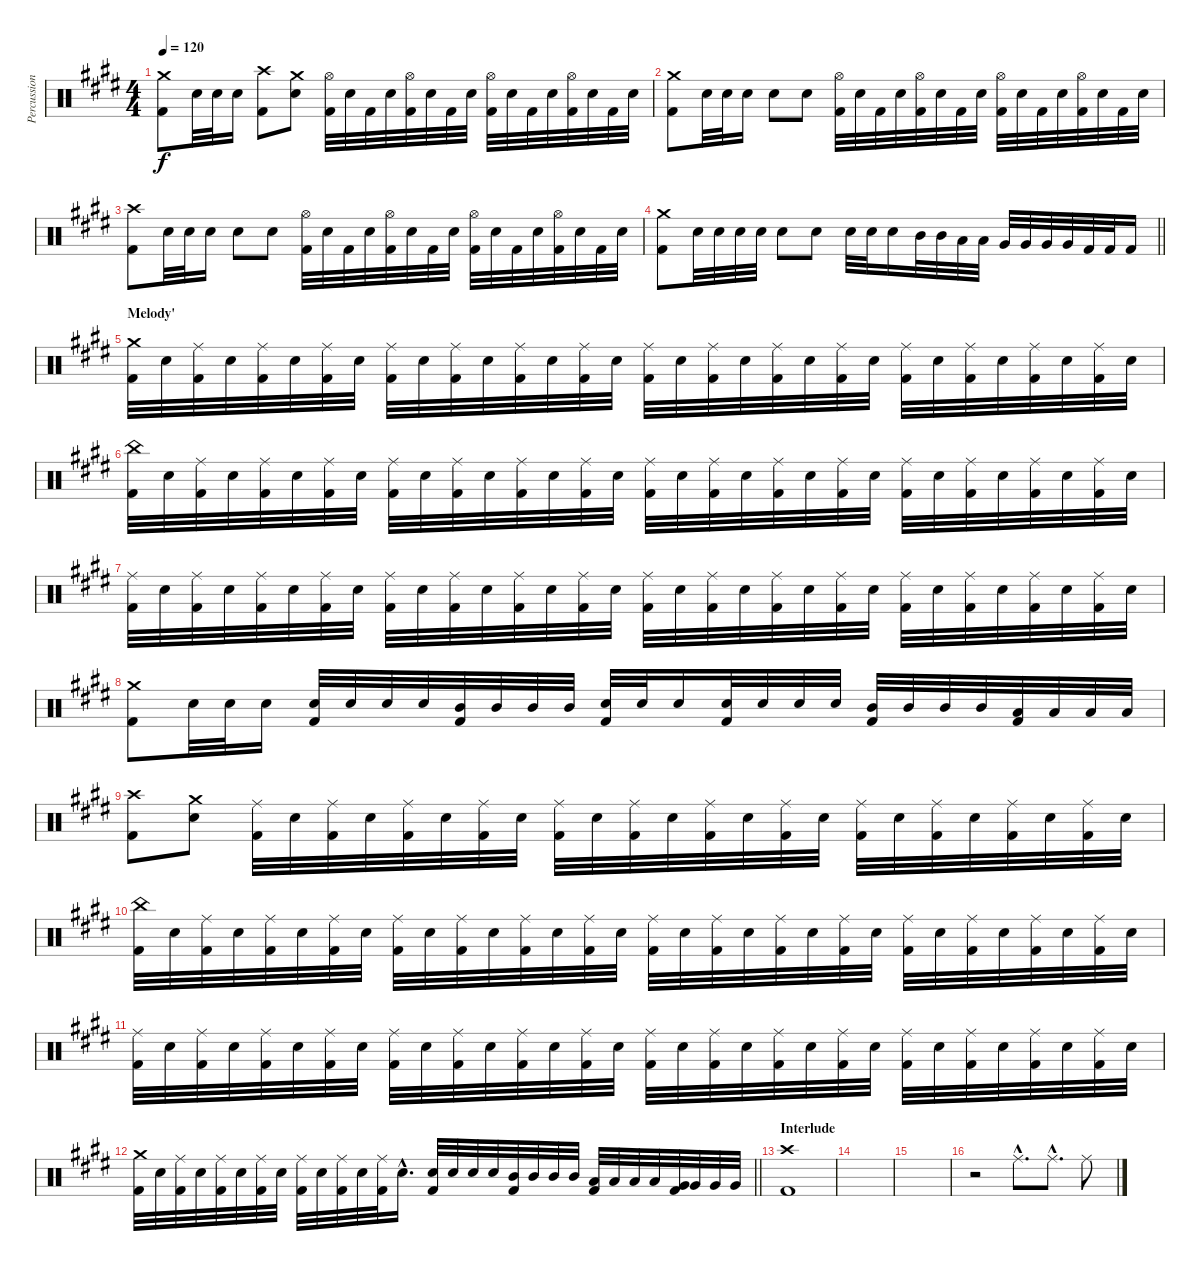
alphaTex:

\track ("Percussion" "Percussion") {instrument percussion}
\staff {score}
\articulation defaults
\ts (4 4)
\tempo 120
\clef neutral
\ks c#minor
("Crash medium (hit)" "Kick (hit) 2").8{dy f} "Snare (hit) 2".32 "Snare (hit) 2".32 "Snare (hit) 2".16 ("Crash high (hit)" "Kick (hit) 2").8 ("Crash medium (hit)" "Snare (hit) 2").8 ("Hi-Hat (open)" "Kick (hit) 2").32 "Snare (hit) 2".32 "Kick (hit) 2".32 "Snare (hit) 2".32 ("Hi-Hat (open)" "Kick (hit) 2").32 "Snare (hit) 2".32 "Kick (hit) 2".32 "Snare (hit) 2".32 ("Hi-Hat (open)" "Kick (hit) 2").32 "Snare (hit) 2".32 "Kick (hit) 2".32 "Snare (hit) 2".32 ("Hi-Hat (open)" "Kick (hit) 2").32 "Snare (hit) 2".32 "Kick (hit) 2".32 "Snare (hit) 2".32 |
("Crash medium (hit)" "Kick (hit) 2").8 "Snare (hit) 2".32 "Snare (hit) 2".32 "Snare (hit) 2".16 "Snare (hit) 2".8 "Snare (hit) 2".8 ("Hi-Hat (open)" "Kick (hit) 2").32 "Snare (hit) 2".32 "Kick (hit) 2".32 "Snare (hit) 2".32 ("Hi-Hat (open)" "Kick (hit) 2").32 "Snare (hit) 2".32 "Kick (hit) 2".32 "Snare (hit) 2".32 ("Hi-Hat (open)" "Kick (hit) 2").32 "Snare (hit) 2".32 "Kick (hit) 2".32 "Snare (hit) 2".32 ("Hi-Hat (open)" "Kick (hit) 2").32 "Snare (hit) 2".32 "Kick (hit) 2".32 "Snare (hit) 2".32 |
("Crash high (hit)" "Kick (hit) 2").8 "Snare (hit) 2".32 "Snare (hit) 2".32 "Snare (hit) 2".16 "Snare (hit) 2".8 "Snare (hit) 2".8 ("Hi-Hat (open)" "Kick (hit) 2").32 "Snare (hit) 2".32 "Kick (hit) 2".32 "Snare (hit) 2".32 ("Hi-Hat (open)" "Kick (hit) 2").32 "Snare (hit) 2".32 "Kick (hit) 2".32 "Snare (hit) 2".32 ("Hi-Hat (open)" "Kick (hit) 2").32 "Snare (hit) 2".32 "Kick (hit) 2".32 "Snare (hit) 2".32 ("Hi-Hat (open)" "Kick (hit) 2").32 "Snare (hit) 2".32 "Kick (hit) 2".32 "Snare (hit) 2".32 |
\barLineRight lightlight
("Crash medium (hit)" "Kick (hit) 2").8 "Snare (hit) 2".32 "Snare (hit) 2".32 "Snare (hit) 2".32 "Snare (hit) 2".32 "Snare (hit) 2".8 "Snare (hit) 2".8 "Snare (hit) 2".32 "Snare (hit) 2".32 "Snare (hit) 2".16 "Mid Tom (hit)".32 "Mid Tom (hit)".32 "Low Tom (hit)".32 "Low Tom (hit)".32 "Very Low Tom (hit)".32 "Very Low Tom (hit)".32 "Very Low Tom (hit)".32 "Very Low Tom (hit)".32 "Kick (hit) 2".32 "Kick (hit) 2".32 "Kick (hit) 2".16 |
\section ("" "Melody'")
("Crash medium (hit)" "Kick (hit) 2").32 "Snare (hit) 2".32 ("Ride (middle)" "Kick (hit) 2").32 "Snare (hit) 2".32 ("Ride (middle)" "Kick (hit) 2").32 "Snare (hit) 2".32 ("Ride (middle)" "Kick (hit) 2").32 "Snare (hit) 2".32 ("Ride (middle)" "Kick (hit) 2").32 "Snare (hit) 2".32 ("Ride (middle)" "Kick (hit) 2").32 "Snare (hit) 2".32 ("Ride (middle)" "Kick (hit) 2").32 "Snare (hit) 2".32 ("Ride (middle)" "Kick (hit) 2").32 "Snare (hit) 2".32 ("Ride (middle)" "Kick (hit) 2").32 "Snare (hit) 2".32 ("Ride (middle)" "Kick (hit) 2").32 "Snare (hit) 2".32 ("Ride (middle)" "Kick (hit) 2").32 "Snare (hit) 2".32 ("Ride (middle)" "Kick (hit) 2").32 "Snare (hit) 2".32 ("Ride (middle)" "Kick (hit) 2").32 "Snare (hit) 2".32 ("Ride (middle)" "Kick (hit) 2").32 "Snare (hit) 2".32 ("Ride (middle)" "Kick (hit) 2").32 "Snare (hit) 2".32 ("Ride (middle)" "Kick (hit) 2").32 "Snare (hit) 2".32 |
("China (hit)" "Kick (hit) 2").32 "Snare (hit) 2".32 ("Ride (middle)" "Kick (hit) 2").32 "Snare (hit) 2".32 ("Ride (middle)" "Kick (hit) 2").32 "Snare (hit) 2".32 ("Ride (middle)" "Kick (hit) 2").32 "Snare (hit) 2".32 ("Ride (middle)" "Kick (hit) 2").32 "Snare (hit) 2".32 ("Ride (middle)" "Kick (hit) 2").32 "Snare (hit) 2".32 ("Ride (middle)" "Kick (hit) 2").32 "Snare (hit) 2".32 ("Ride (middle)" "Kick (hit) 2").32 "Snare (hit) 2".32 ("Ride (middle)" "Kick (hit) 2").32 "Snare (hit) 2".32 ("Ride (middle)" "Kick (hit) 2").32 "Snare (hit) 2".32 ("Ride (middle)" "Kick (hit) 2").32 "Snare (hit) 2".32 ("Ride (middle)" "Kick (hit) 2").32 "Snare (hit) 2".32 ("Ride (middle)" "Kick (hit) 2").32 "Snare (hit) 2".32 ("Ride (middle)" "Kick (hit) 2").32 "Snare (hit) 2".32 ("Ride (middle)" "Kick (hit) 2").32 "Snare (hit) 2".32 ("Ride (middle)" "Kick (hit) 2").32 "Snare (hit) 2".32 |
("Ride (middle)" "Kick (hit) 2").32 "Snare (hit) 2".32 ("Ride (middle)" "Kick (hit) 2").32 "Snare (hit) 2".32 ("Ride (middle)" "Kick (hit) 2").32 "Snare (hit) 2".32 ("Ride (middle)" "Kick (hit) 2").32 "Snare (hit) 2".32 ("Ride (middle)" "Kick (hit) 2").32 "Snare (hit) 2".32 ("Ride (middle)" "Kick (hit) 2").32 "Snare (hit) 2".32 ("Ride (middle)" "Kick (hit) 2").32 "Snare (hit) 2".32 ("Ride (middle)" "Kick (hit) 2").32 "Snare (hit) 2".32 ("Ride (middle)" "Kick (hit) 2").32 "Snare (hit) 2".32 ("Ride (middle)" "Kick (hit) 2").32 "Snare (hit) 2".32 ("Ride (middle)" "Kick (hit) 2").32 "Snare (hit) 2".32 ("Ride (middle)" "Kick (hit) 2").32 "Snare (hit) 2".32 ("Ride (middle)" "Kick (hit) 2").32 "Snare (hit) 2".32 ("Ride (middle)" "Kick (hit) 2").32 "Snare (hit) 2".32 ("Ride (middle)" "Kick (hit) 2").32 "Snare (hit) 2".32 ("Ride (middle)" "Kick (hit) 2").32 "Snare (hit) 2".32 |
("Crash medium (hit)" "Kick (hit) 2").8 "Snare (hit) 2".32 "Snare (hit) 2".32 "Snare (hit) 2".16 ("Snare (hit) 2" "Kick (hit) 2").32 "Snare (hit) 2".32 "Snare (hit) 2".32 "Snare (hit) 2".32 ("Mid Tom (hit)" "Kick (hit) 2").32 "Mid Tom (hit)".32 "Mid Tom (hit)".32 "Mid Tom (hit)".32 ("Snare (hit) 2" "Kick (hit) 2").32 "Snare (hit) 2".32 "Snare (hit) 2".16 ("Snare (hit) 2" "Kick (hit) 2").32 "Snare (hit) 2".32 "Snare (hit) 2".32 "Snare (hit) 2".32 ("Mid Tom (hit)" "Kick (hit) 2").32 "Mid Tom (hit)".32 "Mid Tom (hit)".32 "Mid Tom (hit)".32 ("Low Tom (hit)" "Kick (hit) 2").32 "Low Tom (hit)".32 "Low Tom (hit)".32 "Low Tom (hit)".32 |
("Crash high (hit)" "Kick (hit) 2").8 ("Crash medium (hit)" "Snare (hit) 2").8 ("Ride (middle)" "Kick (hit) 2").32 "Snare (hit) 2".32 ("Ride (middle)" "Kick (hit) 2").32 "Snare (hit) 2".32 ("Ride (middle)" "Kick (hit) 2").32 "Snare (hit) 2".32 ("Ride (middle)" "Kick (hit) 2").32 "Snare (hit) 2".32 ("Ride (middle)" "Kick (hit) 2").32 "Snare (hit) 2".32 ("Ride (middle)" "Kick (hit) 2").32 "Snare (hit) 2".32 ("Ride (middle)" "Kick (hit) 2").32 "Snare (hit) 2".32 ("Ride (middle)" "Kick (hit) 2").32 "Snare (hit) 2".32 ("Ride (middle)" "Kick (hit) 2").32 "Snare (hit) 2".32 ("Ride (middle)" "Kick (hit) 2").32 "Snare (hit) 2".32 ("Ride (middle)" "Kick (hit) 2").32 "Snare (hit) 2".32 ("Ride (middle)" "Kick (hit) 2").32 "Snare (hit) 2".32 |
("China (hit)" "Kick (hit) 2").32 "Snare (hit) 2".32 ("Ride (middle)" "Kick (hit) 2").32 "Snare (hit) 2".32 ("Ride (middle)" "Kick (hit) 2").32 "Snare (hit) 2".32 ("Ride (middle)" "Kick (hit) 2").32 "Snare (hit) 2".32 ("Ride (middle)" "Kick (hit) 2").32 "Snare (hit) 2".32 ("Ride (middle)" "Kick (hit) 2").32 "Snare (hit) 2".32 ("Ride (middle)" "Kick (hit) 2").32 "Snare (hit) 2".32 ("Ride (middle)" "Kick (hit) 2").32 "Snare (hit) 2".32 ("Ride (middle)" "Kick (hit) 2").32 "Snare (hit) 2".32 ("Ride (middle)" "Kick (hit) 2").32 "Snare (hit) 2".32 ("Ride (middle)" "Kick (hit) 2").32 "Snare (hit) 2".32 ("Ride (middle)" "Kick (hit) 2").32 "Snare (hit) 2".32 ("Ride (middle)" "Kick (hit) 2").32 "Snare (hit) 2".32 ("Ride (middle)" "Kick (hit) 2").32 "Snare (hit) 2".32 ("Ride (middle)" "Kick (hit) 2").32 "Snare (hit) 2".32 ("Ride (middle)" "Kick (hit) 2").32 "Snare (hit) 2".32 |
("Ride (middle)" "Kick (hit) 2").32 "Snare (hit) 2".32 ("Ride (middle)" "Kick (hit) 2").32 "Snare (hit) 2".32 ("Ride (middle)" "Kick (hit) 2").32 "Snare (hit) 2".32 ("Ride (middle)" "Kick (hit) 2").32 "Snare (hit) 2".32 ("Ride (middle)" "Kick (hit) 2").32 "Snare (hit) 2".32 ("Ride (middle)" "Kick (hit) 2").32 "Snare (hit) 2".32 ("Ride (middle)" "Kick (hit) 2").32 "Snare (hit) 2".32 ("Ride (middle)" "Kick (hit) 2").32 "Snare (hit) 2".32 ("Ride (middle)" "Kick (hit) 2").32 "Snare (hit) 2".32 ("Ride (middle)" "Kick (hit) 2").32 "Snare (hit) 2".32 ("Ride (middle)" "Kick (hit) 2").32 "Snare (hit) 2".32 ("Ride (middle)" "Kick (hit) 2").32 "Snare (hit) 2".32 ("Ride (middle)" "Kick (hit) 2").32 "Snare (hit) 2".32 ("Ride (middle)" "Kick (hit) 2").32 "Snare (hit) 2".32 ("Ride (middle)" "Kick (hit) 2").32 "Snare (hit) 2".32 ("Ride (middle)" "Kick (hit) 2").32 "Snare (hit) 2".32 |
\barLineRight lightlight
("Crash medium (hit)" "Kick (hit) 2").32 "Snare (hit) 2".32 ("Ride (middle)" "Kick (hit) 2").32 "Snare (hit) 2".32 ("Ride (middle)" "Kick (hit) 2").32 "Snare (hit) 2".32 ("Ride (middle)" "Kick (hit) 2").32 "Snare (hit) 2".32 ("Ride (middle)" "Kick (hit) 2").32 "Snare (hit) 2".32 ("Ride (middle)" "Kick (hit) 2").32 "Snare (hit) 2".32 ("Ride (middle)" "Kick (hit) 2").32 "Snare (hit) 2"{hac}.16{d} ("Snare (hit) 2" "Kick (hit) 2").32 "Snare (hit) 2".32 "Snare (hit) 2".32 "Snare (hit) 2".32 ("Mid Tom (hit)" "Kick (hit) 2").32 "Mid Tom (hit)".32 "Mid Tom (hit)".32 "Mid Tom (hit)".32 ("Low Tom (hit)" "Kick (hit) 2").32 "Low Tom (hit)".32 "Low Tom (hit)".32 "Low Tom (hit)".32 ("Very Low Tom (hit)" "Kick (hit) 2").32 "Very Low Tom (hit)".32 "Very Low Tom (hit)".32 "Very Low Tom (hit)".32 |
\section ("" "Interlude")
("Crash high (hit)" "Kick (hit) 2").1 |
|
|
r.2 "Ride (middle)"{hac}.8{d} "Ride (middle)"{hac}.8{d} "Ride (middle)".8
